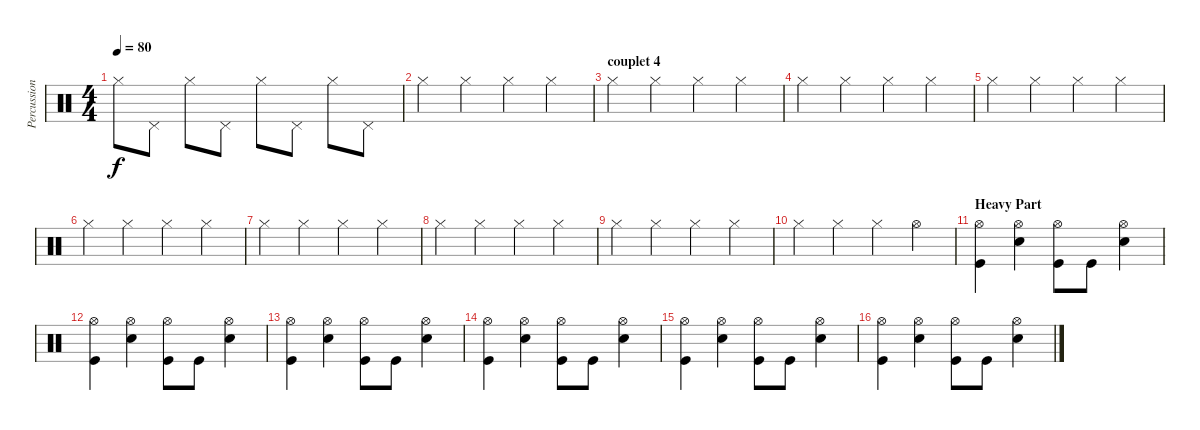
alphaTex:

\track ("Percussions" "Percussion") {instrument percussion}
\staff {score}
\articulation defaults
\ts (4 4)
\tempo 80
\clef neutral
\ks c "Hi-Hat (closed)".8{dy f} "Pedal Hi-Hat (hit)".8 "Hi-Hat (closed)".8 "Pedal Hi-Hat (hit)".8 "Hi-Hat (closed)".8 "Pedal Hi-Hat (hit)".8 "Hi-Hat (closed)".8 "Pedal Hi-Hat (hit)".8
|
"Hi-Hat (closed)".4 "Hi-Hat (closed)".4 "Hi-Hat (closed)".4 "Hi-Hat (closed)".4 |
\section ("" "couplet 4")
"Hi-Hat (closed)".4 "Hi-Hat (closed)".4 "Hi-Hat (closed)".4 "Hi-Hat (closed)".4 |
"Hi-Hat (closed)".4 "Hi-Hat (closed)".4 "Hi-Hat (closed)".4 "Hi-Hat (closed)".4 |
"Hi-Hat (closed)".4 "Hi-Hat (closed)".4 "Hi-Hat (closed)".4 "Hi-Hat (closed)".4 |
"Hi-Hat (closed)".4 "Hi-Hat (closed)".4 "Hi-Hat (closed)".4 "Hi-Hat (closed)".4 |
"Hi-Hat (closed)".4 "Hi-Hat (closed)".4 "Hi-Hat (closed)".4 "Hi-Hat (closed)".4 |
"Hi-Hat (closed)".4 "Hi-Hat (closed)".4 "Hi-Hat (closed)".4 "Hi-Hat (closed)".4 |
"Hi-Hat (closed)".4 "Hi-Hat (closed)".4 "Hi-Hat (closed)".4 "Hi-Hat (closed)".4 |
"Hi-Hat (closed)".4 "Hi-Hat (closed)".4 "Hi-Hat (closed)".4 "Hi-Hat (open)".4 |
\section ("" "Heavy Part")
("Hi-Hat (open)" "Kick (hit)").4{volume 14} ("Hi-Hat (open)" "Electric Snare (hit)").4 ("Hi-Hat (open)" "Kick (hit)").8 "Kick (hit)".8 ("Hi-Hat (open)" "Electric Snare (hit)").4 |
("Hi-Hat (open)" "Kick (hit)").4 ("Hi-Hat (open)" "Electric Snare (hit)").4 ("Hi-Hat (open)" "Kick (hit)").8 "Kick (hit)".8 ("Hi-Hat (open)" "Electric Snare (hit)").4 |
("Hi-Hat (open)" "Kick (hit)").4 ("Hi-Hat (open)" "Electric Snare (hit)").4 ("Hi-Hat (open)" "Kick (hit)").8 "Kick (hit)".8 ("Hi-Hat (open)" "Electric Snare (hit)").4 |
("Hi-Hat (open)" "Kick (hit)").4 ("Hi-Hat (open)" "Electric Snare (hit)").4 ("Hi-Hat (open)" "Kick (hit)").8 "Kick (hit)".8 ("Hi-Hat (open)" "Electric Snare (hit)").4 |
("Hi-Hat (open)" "Kick (hit)").4 ("Hi-Hat (open)" "Electric Snare (hit)").4 ("Hi-Hat (open)" "Kick (hit)").8 "Kick (hit)".8 ("Hi-Hat (open)" "Electric Snare (hit)").4 |
("Hi-Hat (open)" "Kick (hit)").4 ("Hi-Hat (open)" "Electric Snare (hit)").4 ("Hi-Hat (open)" "Kick (hit)").8 "Kick (hit)".8 ("Hi-Hat (open)" "Electric Snare (hit)").4
